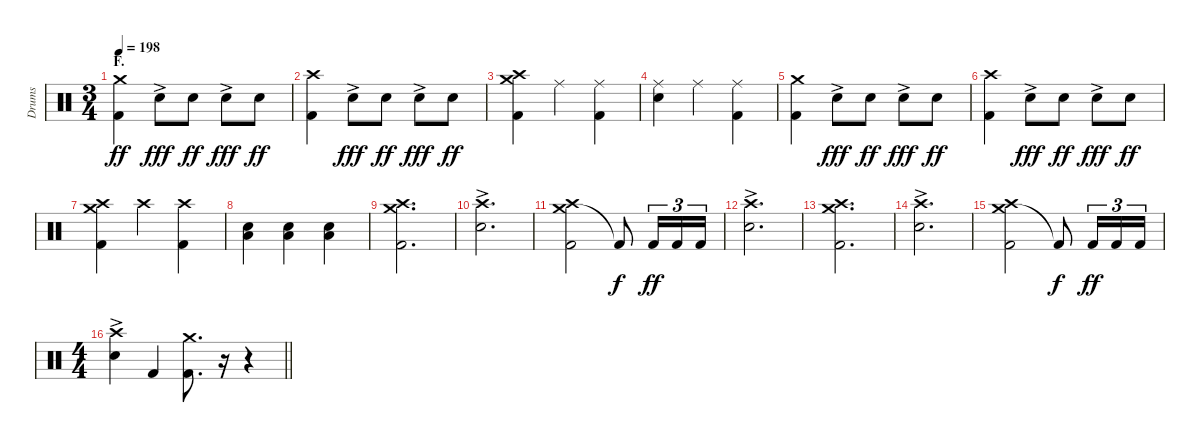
\track ("Drums" "Drums") {instrument percussion}
\staff {score}
\articulation defaults
\ts (3 4)
\section ("" "F.")
\tempo 198
\clef neutral
\ks c
("Crash medium (hit)" "Kick (hit) 2").4{dy ff} "Electric Snare (hit)"{ac}.8{dy fff} "Electric Snare (hit)".8{dy ff} "Electric Snare (hit)"{ac}.8{dy fff} "Electric Snare (hit)".8{dy ff} |
("Crash high (hit)" "Kick (hit) 2").4 "Electric Snare (hit)"{ac}.8{dy fff} "Electric Snare (hit)".8{dy ff} "Electric Snare (hit)"{ac}.8{dy fff} "Electric Snare (hit)".8{dy ff} |
("Crash medium (hit)" "Crash high (hit)" "Kick (hit) 2").4 "Ride (middle)".4 ("Ride (middle)" "Kick (hit) 2").4 |
("Ride (middle)" "Electric Snare (hit)").4 "Ride (middle)".4 ("Ride (middle)" "Kick (hit) 2").4 |
("Crash medium (hit)" "Kick (hit) 2").4 "Electric Snare (hit)"{ac}.8{dy fff} "Electric Snare (hit)".8{dy ff} "Electric Snare (hit)"{ac}.8{dy fff} "Electric Snare (hit)".8{dy ff} |
("Crash high (hit)" "Kick (hit) 2").4 "Electric Snare (hit)"{ac}.8{dy fff} "Electric Snare (hit)".8{dy ff} "Electric Snare (hit)"{ac}.8{dy fff} "Electric Snare (hit)".8{dy ff} |
("Crash medium (hit)" "Crash high (hit)" "Kick (hit) 2").4 "Crash high (hit)".4 ("Crash high (hit)" "Kick (hit) 2").4 |
("Low Tom (hit)" "Electric Snare (hit)").4{bu 60} ("Low Tom (hit)" "Electric Snare (hit)").4{bu 60} ("Low Tom (hit)" "Electric Snare (hit)").4{bu 60} |
("Crash medium (hit)" "Crash high (hit)" "Kick (hit) 2").2{d} |
("Crash high (hit)"{ac} "Electric Snare (hit)").2{d} |
("Crash medium (hit)" "Crash high (hit)" "Kick (hit) 2").2 "Kick (hit) 2"{t}.8{dy f} "Kick (hit) 2".16{tu (3 2) dy ff} "Kick (hit) 2".16{tu (3 2)} "Kick (hit) 2".16{tu (3 2)} |
("Crash high (hit)"{ac} "Electric Snare (hit)").2{d} |
("Crash medium (hit)" "Crash high (hit)" "Kick (hit) 2").2{d} |
("Crash high (hit)"{ac} "Electric Snare (hit)").2{d} |
("Crash medium (hit)" "Crash high (hit)" "Kick (hit) 2").2 "Kick (hit) 2"{t}.8{dy f} "Kick (hit) 2".16{tu (3 2) dy ff} "Kick (hit) 2".16{tu (3 2)} "Kick (hit) 2".16{tu (3 2)} |
\ts (4 4)
\barLineRight lightlight
("Crash high (hit)"{ac} "Electric Snare (hit)").4 "Kick (hit) 2".4 ("Crash medium (hit)" "Kick (hit) 2").8{d} r.16{volume 0} r.4
